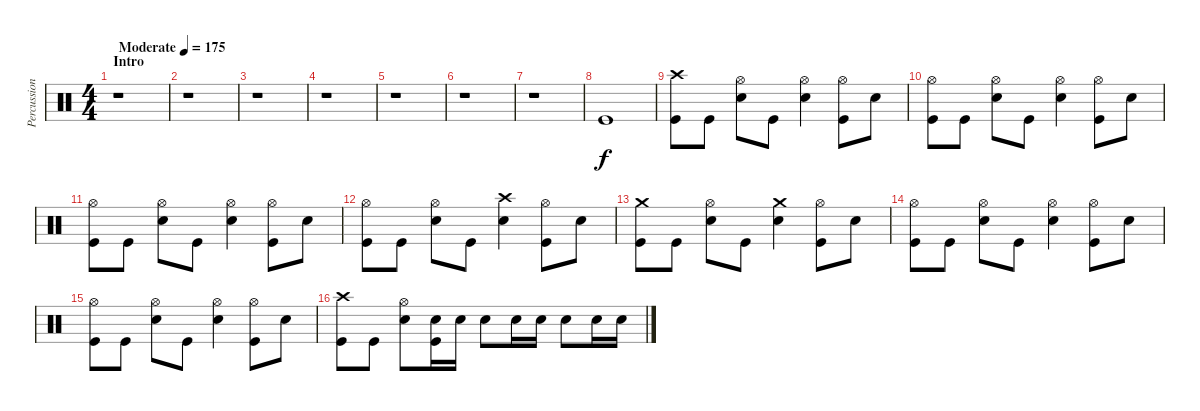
\track ("Percussion" "Percussion") {instrument percussion}
\staff {score}
\articulation defaults
\ts (4 4)
\section ("" "Intro")
\tempo (175 "Moderate")
\clef neutral
\ks c
r.1{dy f} |
r.1 |
r.1 |
r.1 |
r.1 |
r.1 |
r.1 |
"Kick (hit)".1 |
("Crash high (hit)" "Kick (hit)").8 "Kick (hit)".8 ("Hi-Hat (open)" "Electric Snare (hit)").8 "Kick (hit)".8 ("Hi-Hat (open)" "Electric Snare (hit)").4 ("Hi-Hat (open)" "Kick (hit)").8 "Electric Snare (hit)".8 |
("Hi-Hat (open)" "Kick (hit)").8 "Kick (hit)".8 ("Hi-Hat (open)" "Electric Snare (hit)").8 "Kick (hit)".8 ("Hi-Hat (open)" "Electric Snare (hit)").4 ("Hi-Hat (open)" "Kick (hit)").8 "Electric Snare (hit)".8 |
("Hi-Hat (open)" "Kick (hit)").8 "Kick (hit)".8 ("Hi-Hat (open)" "Electric Snare (hit)").8 "Kick (hit)".8 ("Hi-Hat (open)" "Electric Snare (hit)").4 ("Hi-Hat (open)" "Kick (hit)").8 "Electric Snare (hit)".8 |
("Hi-Hat (open)" "Kick (hit)").8 "Kick (hit)".8 ("Hi-Hat (open)" "Electric Snare (hit)").8 "Kick (hit)".8 ("Crash high (hit)" "Electric Snare (hit)").4 ("Hi-Hat (open)" "Kick (hit)").8 "Electric Snare (hit)".8 |
("Crash medium (hit)" "Kick (hit)").8 "Kick (hit)".8 ("Hi-Hat (open)" "Electric Snare (hit)").8 "Kick (hit)".8 ("Crash medium (hit)" "Electric Snare (hit)").4 ("Hi-Hat (open)" "Kick (hit)").8 "Electric Snare (hit)".8 |
("Hi-Hat (open)" "Kick (hit)").8 "Kick (hit)".8 ("Hi-Hat (open)" "Electric Snare (hit)").8 "Kick (hit)".8 ("Hi-Hat (open)" "Electric Snare (hit)").4 ("Hi-Hat (open)" "Kick (hit)").8 "Electric Snare (hit)".8 |
("Hi-Hat (open)" "Kick (hit)").8 "Kick (hit)".8 ("Hi-Hat (open)" "Electric Snare (hit)").8 "Kick (hit)".8 ("Hi-Hat (open)" "Electric Snare (hit)").4 ("Hi-Hat (open)" "Kick (hit)").8 "Electric Snare (hit)".8 |
("Crash high (hit)" "Kick (hit)").8 "Kick (hit)".8 ("Hi-Hat (open)" "Electric Snare (hit)").8 ("Electric Snare (hit)" "Kick (hit)").16 "Electric Snare (hit)".16 "Electric Snare (hit)".8 "Electric Snare (hit)".16 "Electric Snare (hit)".16 "Electric Snare (hit)".8 "Electric Snare (hit)".16 "Electric Snare (hit)".16
